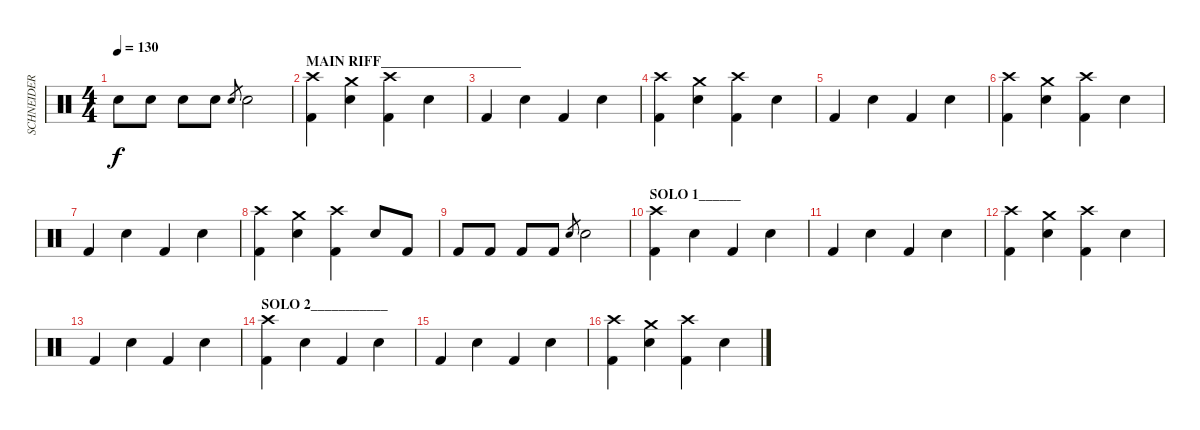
\track ("SCHNEIDER - Drums" "SCHNEIDER ") {instrument percussion}
\staff {score}
\articulation defaults
\ts (4 4)
\tempo 130
\clef neutral
\ks c "Snare (hit) 2".8{dy f} "Snare (hit) 2".8 "Snare (hit) 2".8 "Snare (hit) 2".8 "Snare (hit) 2".8{gr} "Snare (hit) 2".2
|
\section ("" "MAIN RIFF____________________")
("Crash high (hit)" "Kick (hit) 2").4 ("Crash medium (hit)" "Snare (hit) 2").4 ("Crash high (hit)" "Kick (hit) 2").4 "Snare (hit) 2".4 |
"Kick (hit) 2".4 "Snare (hit) 2".4 "Kick (hit) 2".4 "Snare (hit) 2".4 |
("Crash high (hit)" "Kick (hit) 2").4 ("Crash medium (hit)" "Snare (hit) 2").4 ("Crash high (hit)" "Kick (hit) 2").4 "Snare (hit) 2".4 |
"Kick (hit) 2".4 "Snare (hit) 2".4 "Kick (hit) 2".4 "Snare (hit) 2".4 |
("Crash high (hit)" "Kick (hit) 2").4 ("Crash medium (hit)" "Snare (hit) 2").4 ("Crash high (hit)" "Kick (hit) 2").4 "Snare (hit) 2".4 |
"Kick (hit) 2".4 "Snare (hit) 2".4 "Kick (hit) 2".4 "Snare (hit) 2".4 |
("Crash high (hit)" "Kick (hit) 2").4 ("Crash medium (hit)" "Snare (hit) 2").4 ("Crash high (hit)" "Kick (hit) 2").4 "Snare (hit) 2".8 "Kick (hit) 2".8 |
"Kick (hit) 2".8 "Kick (hit) 2".8 "Kick (hit) 2".8 "Kick (hit) 2".8 "Snare (hit) 2".8{gr} "Snare (hit) 2".2 |
\section ("" "SOLO 1______")
("Crash high (hit)" "Kick (hit) 2").4 "Snare (hit) 2".4 "Kick (hit) 2".4 "Snare (hit) 2".4 |
"Kick (hit) 2".4 "Snare (hit) 2".4 "Kick (hit) 2".4 "Snare (hit) 2".4 |
("Crash high (hit)" "Kick (hit) 2").4 ("Crash medium (hit)" "Snare (hit) 2").4 ("Crash high (hit)" "Kick (hit) 2").4 "Snare (hit) 2".4 |
"Kick (hit) 2".4 "Snare (hit) 2".4 "Kick (hit) 2".4 "Snare (hit) 2".4 |
\section ("" "SOLO 2___________")
("Crash high (hit)" "Kick (hit) 2").4 "Snare (hit) 2".4 "Kick (hit) 2".4 "Snare (hit) 2".4 |
"Kick (hit) 2".4 "Snare (hit) 2".4 "Kick (hit) 2".4 "Snare (hit) 2".4 |
("Crash high (hit)" "Kick (hit) 2").4 ("Crash medium (hit)" "Snare (hit) 2").4 ("Crash high (hit)" "Kick (hit) 2").4 "Snare (hit) 2".4
